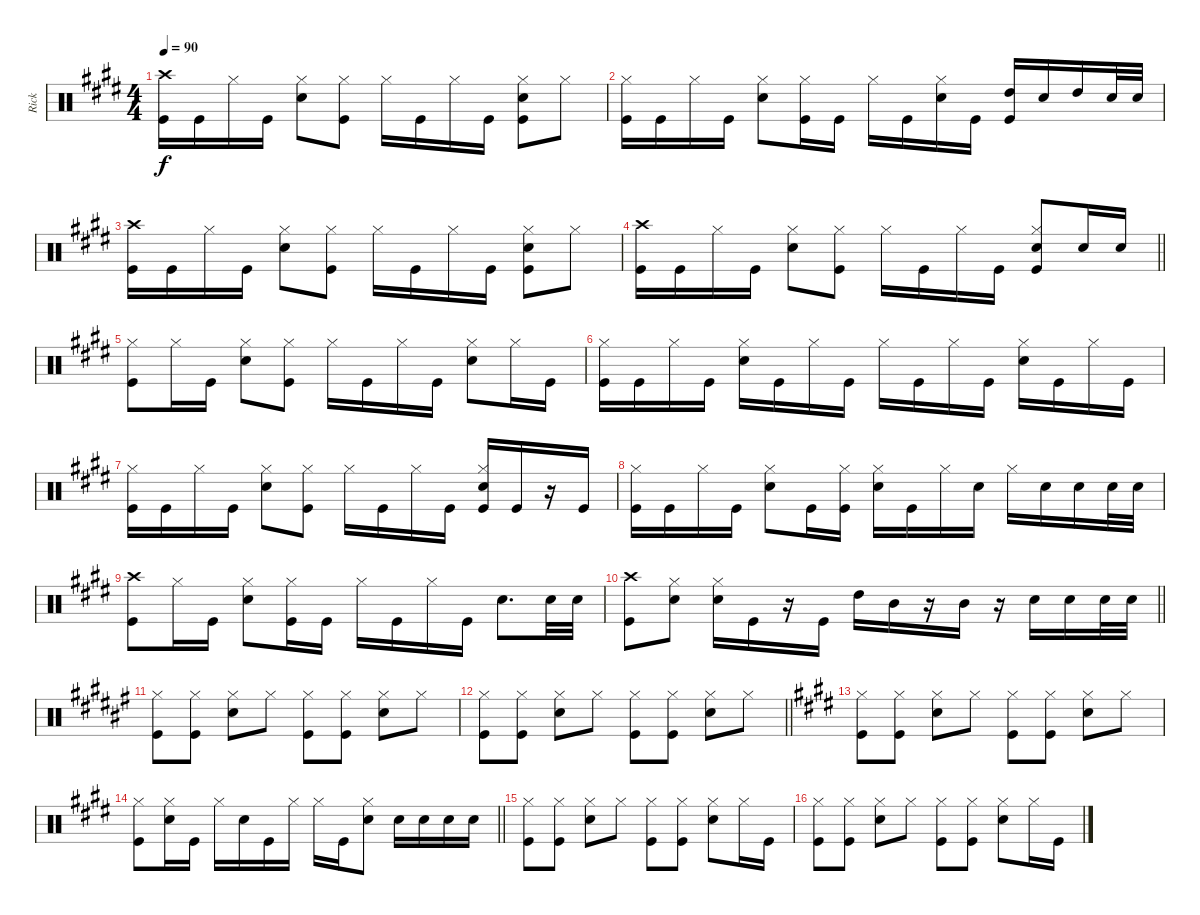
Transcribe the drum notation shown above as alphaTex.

\track ("Rick" "Rick") {instrument percussion}
\staff {score}
\articulation defaults
\ts (4 4)
\tempo 90
\clef neutral
\ks e
("Crash high (hit)" "Kick (hit)").16{dy f} "Kick (hit)".16 "Hi-Hat (closed)".16 "Kick (hit)".16 ("Hi-Hat (closed)" "Snare (hit) 2").8 ("Hi-Hat (closed)" "Kick (hit)").8 "Hi-Hat (closed)".16 "Kick (hit)".16 "Hi-Hat (closed)".16 "Kick (hit)".16 ("Hi-Hat (closed)" "Snare (hit) 2" "Kick (hit)").8 "Hi-Hat (closed)".8 |
("Hi-Hat (closed)" "Kick (hit)").16 "Kick (hit)".16 "Hi-Hat (closed)".16 "Kick (hit)".16 ("Hi-Hat (closed)" "Snare (hit) 2").8 ("Hi-Hat (closed)" "Kick (hit)").16 "Kick (hit)".16 "Hi-Hat (closed)".16 "Kick (hit)".16 ("Hi-Hat (closed)" "Snare (hit) 2").16 "Kick (hit)".16 ("High Tom (hit)" "Kick (hit)").16 "Snare (hit) 2".16 "High Tom (hit)".16 "Snare (hit) 2".32 "Snare (hit) 2".32 |
("Crash high (hit)" "Kick (hit)").16 "Kick (hit)".16 "Hi-Hat (closed)".16 "Kick (hit)".16 ("Hi-Hat (closed)" "Snare (hit) 2").8 ("Hi-Hat (closed)" "Kick (hit)").8 "Hi-Hat (closed)".16 "Kick (hit)".16 "Hi-Hat (closed)".16 "Kick (hit)".16 ("Hi-Hat (closed)" "Snare (hit) 2" "Kick (hit)").8 "Hi-Hat (closed)".8 |
\barLineRight lightlight
("Crash high (hit)" "Kick (hit)").16 "Kick (hit)".16 "Hi-Hat (closed)".16 "Kick (hit)".16 ("Hi-Hat (closed)" "Snare (hit) 2").8 ("Hi-Hat (closed)" "Kick (hit)").8 "Hi-Hat (closed)".16 "Kick (hit)".16 "Hi-Hat (closed)".16 "Kick (hit)".16 ("Hi-Hat (closed)" "Snare (hit) 2" "Kick (hit)").8 "Snare (hit) 2".16 "Snare (hit) 2".16 |
("Hi-Hat (closed)" "Kick (hit)").8 "Hi-Hat (closed)".16 "Kick (hit)".16 ("Hi-Hat (closed)" "Snare (hit) 2").8 ("Hi-Hat (closed)" "Kick (hit)").8 "Hi-Hat (closed)".16 "Kick (hit)".16 "Hi-Hat (closed)".16 "Kick (hit)".16 ("Hi-Hat (closed)" "Snare (hit) 2").8 "Hi-Hat (closed)".16 "Kick (hit)".16 |
("Hi-Hat (closed)" "Kick (hit)").16 "Kick (hit)".16 "Hi-Hat (closed)".16 "Kick (hit)".16 ("Hi-Hat (closed)" "Snare (hit) 2").16 "Kick (hit)".16 "Hi-Hat (closed)".16 "Kick (hit)".16 "Hi-Hat (closed)".16 "Kick (hit)".16 "Hi-Hat (closed)".16 "Kick (hit)".16 ("Hi-Hat (closed)" "Snare (hit) 2").16 "Kick (hit)".16 "Hi-Hat (closed)".16 "Kick (hit)".16 |
("Hi-Hat (closed)" "Kick (hit)").16 "Kick (hit)".16 "Hi-Hat (closed)".16 "Kick (hit)".16 ("Hi-Hat (closed)" "Snare (hit) 2").8 ("Hi-Hat (closed)" "Kick (hit)").8 "Hi-Hat (closed)".16 "Kick (hit)".16 "Hi-Hat (closed)".16 "Kick (hit)".16 ("Hi-Hat (closed)" "Snare (hit) 2" "Kick (hit)").16 "Kick (hit)".16 r.16 "Kick (hit)".16 |
("Hi-Hat (closed)" "Kick (hit)").16 "Kick (hit)".16 "Hi-Hat (closed)".16 "Kick (hit)".16 ("Hi-Hat (closed)" "Snare (hit) 2").8 "Kick (hit)".16 ("Hi-Hat (closed)" "Kick (hit)").16 ("Hi-Hat (closed)" "Snare (hit) 2").16 "Kick (hit)".16 "Hi-Hat (closed)".16 "Snare (hit) 2".16 "Hi-Hat (closed)".16 "Snare (hit) 2".16 "Snare (hit) 2".16 "Snare (hit) 2".32 "Snare (hit) 2".32 |
("Crash high (hit)" "Kick (hit)").8 "Hi-Hat (closed)".16 "Kick (hit)".16 ("Hi-Hat (closed)" "Snare (hit) 2").8 ("Hi-Hat (closed)" "Kick (hit)").16 "Kick (hit)".16 "Hi-Hat (closed)".16 "Kick (hit)".16 "Hi-Hat (closed)".16 "Kick (hit)".16 "Snare (hit) 2".8{d} "Snare (hit) 2".32 "Snare (hit) 2".32 |
\barLineRight lightlight
("Crash high (hit)" "Kick (hit)").8 ("Hi-Hat (closed)" "Snare (hit) 2").8 ("Hi-Hat (closed)" "Snare (hit) 2").16 "Kick (hit)".16 r.16 "Kick (hit)".16 "High Tom (hit)".16 "Mid Tom (hit)".16 r.16 "Mid Tom (hit)".16 r.16 "Snare (hit) 2".16 "Snare (hit) 2".16 "Snare (hit) 2".32 "Snare (hit) 2".32 |
\ks f#
("Hi-Hat (closed)" "Kick (hit)").8 ("Hi-Hat (closed)" "Kick (hit)").8 ("Hi-Hat (closed)" "Snare (hit) 2").8 "Hi-Hat (closed)".8 ("Hi-Hat (closed)" "Kick (hit)").8 ("Hi-Hat (closed)" "Kick (hit)").8 ("Hi-Hat (closed)" "Snare (hit) 2").8 "Hi-Hat (closed)".8 |
\barLineRight lightlight
("Hi-Hat (closed)" "Kick (hit)").8 ("Hi-Hat (closed)" "Kick (hit)").8 ("Hi-Hat (closed)" "Snare (hit) 2").8 "Hi-Hat (closed)".8 ("Hi-Hat (closed)" "Kick (hit)").8 ("Hi-Hat (closed)" "Kick (hit)").8 ("Hi-Hat (closed)" "Snare (hit) 2").8 "Hi-Hat (closed)".8 |
\ks e
("Hi-Hat (closed)" "Kick (hit)").8 ("Hi-Hat (closed)" "Kick (hit)").8 ("Hi-Hat (closed)" "Snare (hit) 2").8 "Hi-Hat (closed)".8 ("Hi-Hat (closed)" "Kick (hit)").8 ("Hi-Hat (closed)" "Kick (hit)").8 ("Hi-Hat (closed)" "Snare (hit) 2").8 "Hi-Hat (closed)".8 |
\barLineRight lightlight
("Hi-Hat (closed)" "Kick (hit)").8 ("Hi-Hat (closed)" "Snare (hit) 2").16 "Kick (hit)".16 "Hi-Hat (closed)".16 "Snare (hit) 2".16 "Kick (hit)".16 "Hi-Hat (closed)".16 "Hi-Hat (closed)".16 "Kick (hit)".16 ("Hi-Hat (closed)" "Snare (hit) 2").8 "Snare (hit) 2".16 "Snare (hit) 2".16 "Snare (hit) 2".16 "Snare (hit) 2".16 |
("Hi-Hat (closed)" "Kick (hit)").8 ("Hi-Hat (closed)" "Kick (hit)").8 ("Hi-Hat (closed)" "Snare (hit) 2").8 "Hi-Hat (closed)".8 ("Hi-Hat (closed)" "Kick (hit)").8 ("Hi-Hat (closed)" "Kick (hit)").8 ("Hi-Hat (closed)" "Snare (hit) 2").8 "Hi-Hat (closed)".16 "Kick (hit)".16 |
("Hi-Hat (closed)" "Kick (hit)").8 ("Hi-Hat (closed)" "Kick (hit)").8 ("Hi-Hat (closed)" "Snare (hit) 2").8 "Hi-Hat (closed)".8 ("Hi-Hat (closed)" "Kick (hit)").8 ("Hi-Hat (closed)" "Kick (hit)").8 ("Hi-Hat (closed)" "Snare (hit) 2").8 "Hi-Hat (closed)".16 "Kick (hit)".16
